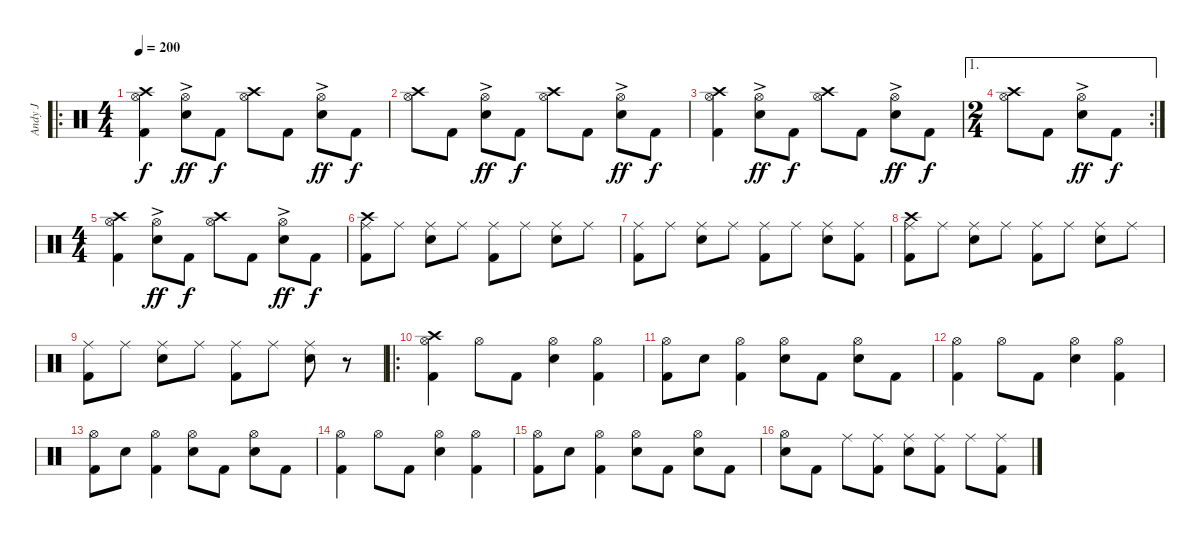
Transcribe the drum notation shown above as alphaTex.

\track ("Andy J" "Andy J") {instrument percussion}
\staff {score}
\articulation defaults
\ro
\ts (4 4)
\tempo 200
\clef neutral
\ks c
("Crash high (hit)" "Hi-Hat (open)" "Kick (hit) 2").4{dy f} ("Hi-Hat (open)" "Electric Snare (hit)"{ac}).8{dy ff} "Kick (hit) 2".8{dy f} ("Crash high (hit)" "Hi-Hat (open)").8 "Kick (hit) 2".8 ("Hi-Hat (open)" "Electric Snare (hit)"{ac}).8{dy ff} "Kick (hit) 2".8{dy f} |
("Crash high (hit)" "Hi-Hat (open)").8 "Kick (hit) 2".8 ("Hi-Hat (open)" "Electric Snare (hit)"{ac}).8{dy ff} "Kick (hit) 2".8{dy f} ("Crash high (hit)" "Hi-Hat (open)").8 "Kick (hit) 2".8 ("Hi-Hat (open)" "Electric Snare (hit)"{ac}).8{dy ff} "Kick (hit) 2".8{dy f} |
("Crash high (hit)" "Hi-Hat (open)" "Kick (hit) 2").4 ("Hi-Hat (open)" "Electric Snare (hit)"{ac}).8{dy ff} "Kick (hit) 2".8{dy f} ("Crash high (hit)" "Hi-Hat (open)").8 "Kick (hit) 2".8 ("Hi-Hat (open)" "Electric Snare (hit)"{ac}).8{dy ff} "Kick (hit) 2".8{dy f} |
\ae 1
\rc 2
\ts (2 4)
("Crash high (hit)" "Hi-Hat (open)").8 "Kick (hit) 2".8 ("Hi-Hat (open)" "Electric Snare (hit)"{ac}).8{dy ff} "Kick (hit) 2".8{dy f} |
\ts (4 4)
("Crash high (hit)" "Hi-Hat (open)" "Kick (hit) 2").4 ("Hi-Hat (open)" "Electric Snare (hit)"{ac}).8{dy ff} "Kick (hit) 2".8{dy f} ("Crash high (hit)" "Hi-Hat (open)").8 "Kick (hit) 2".8 ("Hi-Hat (open)" "Electric Snare (hit)"{ac}).8{dy ff} "Kick (hit) 2".8{dy f} |
("Crash high (hit)" "Ride (middle)" "Kick (hit) 2").8 "Ride (middle)".8 ("Ride (middle)" "Electric Snare (hit)").8 "Ride (middle)".8 ("Ride (middle)" "Kick (hit) 2").8 "Ride (middle)".8 ("Ride (middle)" "Electric Snare (hit)").8 "Ride (middle)".8 |
("Ride (middle)" "Kick (hit) 2").8 "Ride (middle)".8 ("Ride (middle)" "Electric Snare (hit)").8 "Ride (middle)".8 ("Ride (middle)" "Kick (hit) 2").8 "Ride (middle)".8 ("Ride (middle)" "Electric Snare (hit)").8 ("Ride (middle)" "Kick (hit) 2").8 |
("Crash high (hit)" "Ride (middle)" "Kick (hit) 2").8 "Ride (middle)".8 ("Ride (middle)" "Electric Snare (hit)").8 "Ride (middle)".8 ("Ride (middle)" "Kick (hit) 2").8 "Ride (middle)".8 ("Ride (middle)" "Electric Snare (hit)").8 "Ride (middle)".8 |
("Ride (middle)" "Kick (hit) 2").8 "Ride (middle)".8 ("Ride (middle)" "Electric Snare (hit)").8 "Ride (middle)".8 ("Ride (middle)" "Kick (hit) 2").8 "Ride (middle)".8 ("Ride (middle)" "Electric Snare (hit)").8 r.8 |
\ro
("Crash high (hit)" "Hi-Hat (open)" "Kick (hit) 2").4 "Hi-Hat (open)".8 "Kick (hit) 2".8 ("Hi-Hat (open)" "Electric Snare (hit)").4 ("Hi-Hat (open)" "Kick (hit) 2").4 |
("Hi-Hat (open)" "Kick (hit) 2").8 "Electric Snare (hit)".8 ("Hi-Hat (open)" "Kick (hit) 2").4 ("Hi-Hat (open)" "Electric Snare (hit)").8 "Kick (hit) 2".8 ("Hi-Hat (open)" "Electric Snare (hit)").8 "Kick (hit) 2".8 |
("Hi-Hat (open)" "Kick (hit) 2").4 "Hi-Hat (open)".8 "Kick (hit) 2".8 ("Hi-Hat (open)" "Electric Snare (hit)").4 ("Hi-Hat (open)" "Kick (hit) 2").4 |
("Hi-Hat (open)" "Kick (hit) 2").8 "Electric Snare (hit)".8 ("Hi-Hat (open)" "Kick (hit) 2").4 ("Hi-Hat (open)" "Electric Snare (hit)").8 "Kick (hit) 2".8 ("Hi-Hat (open)" "Electric Snare (hit)").8 "Kick (hit) 2".8 |
("Hi-Hat (open)" "Kick (hit) 2").4 "Hi-Hat (open)".8 "Kick (hit) 2".8 ("Hi-Hat (open)" "Electric Snare (hit)").4 ("Hi-Hat (open)" "Kick (hit) 2").4 |
("Hi-Hat (open)" "Kick (hit) 2").8 "Electric Snare (hit)".8 ("Hi-Hat (open)" "Kick (hit) 2").4 ("Hi-Hat (open)" "Electric Snare (hit)").8 "Kick (hit) 2".8 ("Hi-Hat (open)" "Electric Snare (hit)").8 "Kick (hit) 2".8 |
("Hi-Hat (open)" "Electric Snare (hit)").8 "Kick (hit) 2".8 "Ride (middle)".8 ("Ride (middle)" "Kick (hit) 2").8 ("Ride (middle)" "Electric Snare (hit)").8 ("Ride (middle)" "Kick (hit) 2").8 "Ride (middle)".8 ("Ride (middle)" "Kick (hit) 2").8
